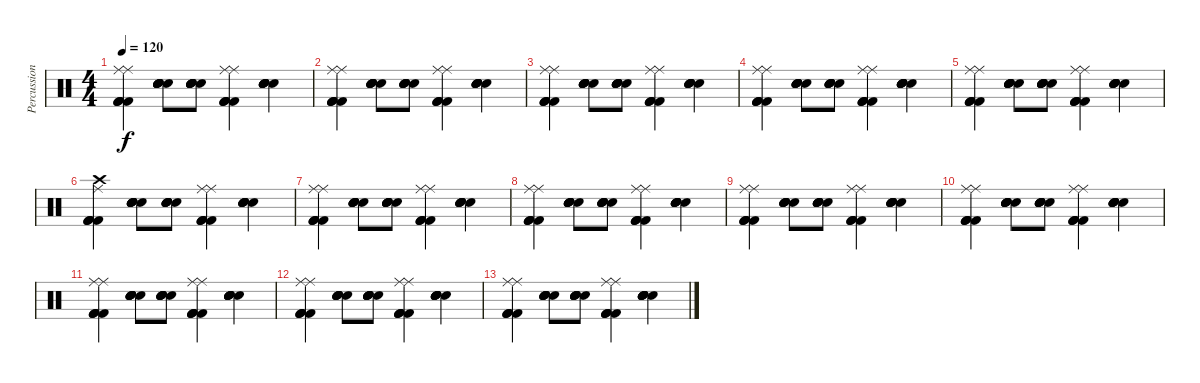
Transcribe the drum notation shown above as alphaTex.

\track ("Percussion" "Percussion") {instrument percussion}
\staff {score}
\articulation defaults
\ts (4 4)
\tempo 120
\clef neutral
\ks c
("Ride (middle)" "Kick (hit) 2" "Kick (hit) 2" "Kick (hit) 2" "Kick (hit) 2" "Ride (middle)").4{dy f} ("Electric Snare (hit)" "Electric Snare (hit)" "Electric Snare (hit)" "Electric Snare (hit)" "Electric Snare (hit)" "Electric Snare (hit)").8 ("Electric Snare (hit)" "Electric Snare (hit)" "Electric Snare (hit)" "Electric Snare (hit)" "Electric Snare (hit)" "Electric Snare (hit)").8 ("Ride (middle)" "Kick (hit) 2" "Kick (hit) 2" "Kick (hit) 2" "Kick (hit) 2" "Ride (middle)").4 ("Electric Snare (hit)" "Electric Snare (hit)" "Electric Snare (hit)" "Electric Snare (hit)" "Electric Snare (hit)" "Electric Snare (hit)").4 |
("Ride (middle)" "Kick (hit) 2" "Kick (hit) 2" "Kick (hit) 2" "Kick (hit) 2" "Ride (middle)").4 ("Electric Snare (hit)" "Electric Snare (hit)" "Electric Snare (hit)" "Electric Snare (hit)" "Electric Snare (hit)" "Electric Snare (hit)").8 ("Electric Snare (hit)" "Electric Snare (hit)" "Electric Snare (hit)" "Electric Snare (hit)" "Electric Snare (hit)" "Electric Snare (hit)").8 ("Ride (middle)" "Kick (hit) 2" "Kick (hit) 2" "Kick (hit) 2" "Kick (hit) 2" "Ride (middle)").4 ("Electric Snare (hit)" "Electric Snare (hit)" "Electric Snare (hit)" "Electric Snare (hit)" "Electric Snare (hit)" "Electric Snare (hit)").4 |
("Ride (middle)" "Kick (hit) 2" "Kick (hit) 2" "Kick (hit) 2" "Kick (hit) 2" "Ride (middle)").4 ("Electric Snare (hit)" "Electric Snare (hit)" "Electric Snare (hit)" "Electric Snare (hit)" "Electric Snare (hit)" "Electric Snare (hit)").8 ("Electric Snare (hit)" "Electric Snare (hit)" "Electric Snare (hit)" "Electric Snare (hit)" "Electric Snare (hit)" "Electric Snare (hit)").8 ("Ride (middle)" "Kick (hit) 2" "Kick (hit) 2" "Kick (hit) 2" "Kick (hit) 2" "Ride (middle)").4 ("Electric Snare (hit)" "Electric Snare (hit)" "Electric Snare (hit)" "Electric Snare (hit)" "Electric Snare (hit)" "Electric Snare (hit)").4 |
("Ride (middle)" "Kick (hit) 2" "Kick (hit) 2" "Kick (hit) 2" "Kick (hit) 2" "Ride (middle)").4 ("Electric Snare (hit)" "Electric Snare (hit)" "Electric Snare (hit)" "Electric Snare (hit)" "Electric Snare (hit)" "Electric Snare (hit)").8 ("Electric Snare (hit)" "Electric Snare (hit)" "Electric Snare (hit)" "Electric Snare (hit)" "Electric Snare (hit)" "Electric Snare (hit)").8 ("Ride (middle)" "Kick (hit) 2" "Kick (hit) 2" "Kick (hit) 2" "Kick (hit) 2" "Ride (middle)").4 ("Electric Snare (hit)" "Electric Snare (hit)" "Electric Snare (hit)" "Electric Snare (hit)" "Electric Snare (hit)" "Electric Snare (hit)").4 |
("Ride (middle)" "Kick (hit) 2" "Kick (hit) 2" "Kick (hit) 2" "Kick (hit) 2" "Ride (middle)").4 ("Electric Snare (hit)" "Electric Snare (hit)" "Electric Snare (hit)" "Electric Snare (hit)" "Electric Snare (hit)" "Electric Snare (hit)").8 ("Electric Snare (hit)" "Electric Snare (hit)" "Electric Snare (hit)" "Electric Snare (hit)" "Electric Snare (hit)" "Electric Snare (hit)").8 ("Ride (middle)" "Kick (hit) 2" "Kick (hit) 2" "Kick (hit) 2" "Kick (hit) 2" "Ride (middle)").4 ("Electric Snare (hit)" "Electric Snare (hit)" "Electric Snare (hit)" "Electric Snare (hit)" "Electric Snare (hit)" "Electric Snare (hit)").4 |
("Crash high (hit)" "Kick (hit) 2" "Kick (hit) 2" "Kick (hit) 2" "Kick (hit) 2" "Ride (middle)").4 ("Electric Snare (hit)" "Electric Snare (hit)" "Electric Snare (hit)" "Electric Snare (hit)" "Electric Snare (hit)" "Electric Snare (hit)").8 ("Electric Snare (hit)" "Electric Snare (hit)" "Electric Snare (hit)" "Electric Snare (hit)" "Electric Snare (hit)" "Electric Snare (hit)").8 ("Ride (middle)" "Kick (hit) 2" "Kick (hit) 2" "Kick (hit) 2" "Kick (hit) 2" "Ride (middle)").4 ("Electric Snare (hit)" "Electric Snare (hit)" "Electric Snare (hit)" "Electric Snare (hit)" "Electric Snare (hit)" "Electric Snare (hit)").4 |
("Ride (middle)" "Kick (hit) 2" "Kick (hit) 2" "Kick (hit) 2" "Kick (hit) 2" "Ride (middle)").4 ("Electric Snare (hit)" "Electric Snare (hit)" "Electric Snare (hit)" "Electric Snare (hit)" "Electric Snare (hit)" "Electric Snare (hit)").8 ("Electric Snare (hit)" "Electric Snare (hit)" "Electric Snare (hit)" "Electric Snare (hit)" "Electric Snare (hit)" "Electric Snare (hit)").8 ("Ride (middle)" "Kick (hit) 2" "Kick (hit) 2" "Kick (hit) 2" "Kick (hit) 2" "Ride (middle)").4 ("Electric Snare (hit)" "Electric Snare (hit)" "Electric Snare (hit)" "Electric Snare (hit)" "Electric Snare (hit)" "Electric Snare (hit)").4 |
("Ride (middle)" "Kick (hit) 2" "Kick (hit) 2" "Kick (hit) 2" "Kick (hit) 2" "Ride (middle)").4 ("Electric Snare (hit)" "Electric Snare (hit)" "Electric Snare (hit)" "Electric Snare (hit)" "Electric Snare (hit)" "Electric Snare (hit)").8 ("Electric Snare (hit)" "Electric Snare (hit)" "Electric Snare (hit)" "Electric Snare (hit)" "Electric Snare (hit)" "Electric Snare (hit)").8 ("Ride (middle)" "Kick (hit) 2" "Kick (hit) 2" "Kick (hit) 2" "Kick (hit) 2" "Ride (middle)").4 ("Electric Snare (hit)" "Electric Snare (hit)" "Electric Snare (hit)" "Electric Snare (hit)" "Electric Snare (hit)" "Electric Snare (hit)").4 |
("Ride (middle)" "Kick (hit) 2" "Kick (hit) 2" "Kick (hit) 2" "Kick (hit) 2" "Ride (middle)").4 ("Electric Snare (hit)" "Electric Snare (hit)" "Electric Snare (hit)" "Electric Snare (hit)" "Electric Snare (hit)" "Electric Snare (hit)").8 ("Electric Snare (hit)" "Electric Snare (hit)" "Electric Snare (hit)" "Electric Snare (hit)" "Electric Snare (hit)" "Electric Snare (hit)").8 ("Ride (middle)" "Kick (hit) 2" "Kick (hit) 2" "Kick (hit) 2" "Kick (hit) 2" "Ride (middle)").4 ("Electric Snare (hit)" "Electric Snare (hit)" "Electric Snare (hit)" "Electric Snare (hit)" "Electric Snare (hit)" "Electric Snare (hit)").4 |
("Ride (middle)" "Kick (hit) 2" "Kick (hit) 2" "Kick (hit) 2" "Kick (hit) 2" "Ride (middle)").4 ("Electric Snare (hit)" "Electric Snare (hit)" "Electric Snare (hit)" "Electric Snare (hit)" "Electric Snare (hit)" "Electric Snare (hit)").8 ("Electric Snare (hit)" "Electric Snare (hit)" "Electric Snare (hit)" "Electric Snare (hit)" "Electric Snare (hit)" "Electric Snare (hit)").8 ("Ride (middle)" "Kick (hit) 2" "Kick (hit) 2" "Kick (hit) 2" "Kick (hit) 2" "Ride (middle)").4 ("Electric Snare (hit)" "Electric Snare (hit)" "Electric Snare (hit)" "Electric Snare (hit)" "Electric Snare (hit)" "Electric Snare (hit)").4 |
("Ride (middle)" "Kick (hit) 2" "Kick (hit) 2" "Kick (hit) 2" "Kick (hit) 2" "Ride (middle)").4 ("Electric Snare (hit)" "Electric Snare (hit)" "Electric Snare (hit)" "Electric Snare (hit)" "Electric Snare (hit)" "Electric Snare (hit)").8 ("Electric Snare (hit)" "Electric Snare (hit)" "Electric Snare (hit)" "Electric Snare (hit)" "Electric Snare (hit)" "Electric Snare (hit)").8 ("Ride (middle)" "Kick (hit) 2" "Kick (hit) 2" "Kick (hit) 2" "Kick (hit) 2" "Ride (middle)").4 ("Electric Snare (hit)" "Electric Snare (hit)" "Electric Snare (hit)" "Electric Snare (hit)" "Electric Snare (hit)" "Electric Snare (hit)").4 |
("Ride (middle)" "Kick (hit) 2" "Kick (hit) 2" "Kick (hit) 2" "Kick (hit) 2" "Ride (middle)").4 ("Electric Snare (hit)" "Electric Snare (hit)" "Electric Snare (hit)" "Electric Snare (hit)" "Electric Snare (hit)" "Electric Snare (hit)").8 ("Electric Snare (hit)" "Electric Snare (hit)" "Electric Snare (hit)" "Electric Snare (hit)" "Electric Snare (hit)" "Electric Snare (hit)").8 ("Ride (middle)" "Kick (hit) 2" "Kick (hit) 2" "Kick (hit) 2" "Kick (hit) 2" "Ride (middle)").4 ("Electric Snare (hit)" "Electric Snare (hit)" "Electric Snare (hit)" "Electric Snare (hit)" "Electric Snare (hit)" "Electric Snare (hit)").4 |
("Ride (middle)" "Kick (hit) 2" "Kick (hit) 2" "Kick (hit) 2" "Kick (hit) 2" "Ride (middle)").4 ("Electric Snare (hit)" "Electric Snare (hit)" "Electric Snare (hit)" "Electric Snare (hit)" "Electric Snare (hit)" "Electric Snare (hit)").8 ("Electric Snare (hit)" "Electric Snare (hit)" "Electric Snare (hit)" "Electric Snare (hit)" "Electric Snare (hit)" "Electric Snare (hit)").8 ("Ride (middle)" "Kick (hit) 2" "Kick (hit) 2" "Kick (hit) 2" "Kick (hit) 2" "Ride (middle)").4 ("Electric Snare (hit)" "Electric Snare (hit)" "Electric Snare (hit)" "Electric Snare (hit)" "Electric Snare (hit)" "Electric Snare (hit)").4
